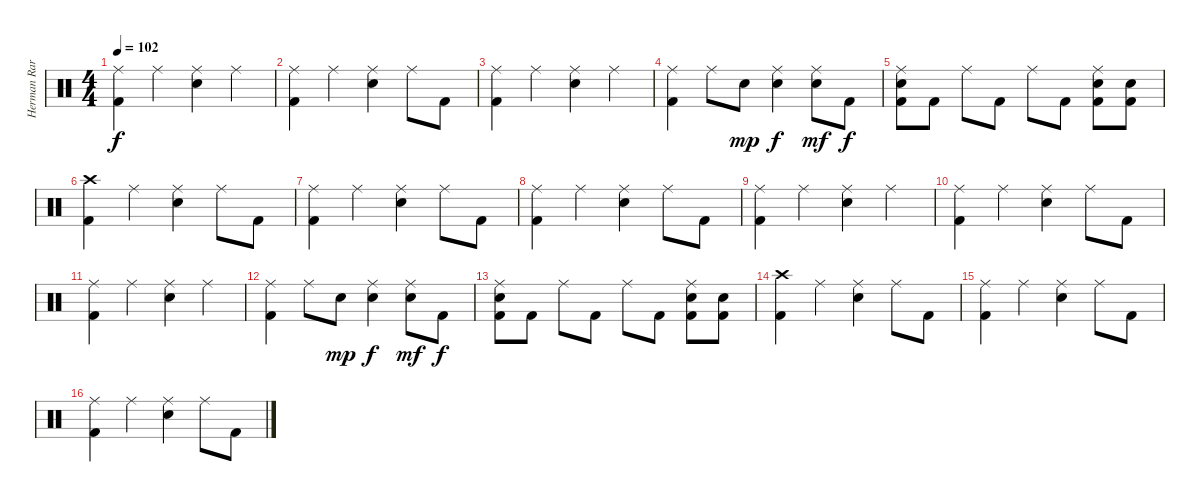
\track ("Herman Rarebell" "Herman Rar") {instrument percussion}
\staff {score}
\articulation defaults
\ts (4 4)
\tempo 102
\clef neutral
\ks c
("Ride (middle)" "Kick (hit) 2").4{dy f} "Ride (middle)".4 ("Ride (middle)" "Electric Snare (hit)").4 "Ride (middle)".4 |
("Ride (middle)" "Kick (hit) 2").4 "Ride (middle)".4 ("Ride (middle)" "Electric Snare (hit)").4 "Ride (middle)".8 "Kick (hit) 2".8 |
("Ride (middle)" "Kick (hit) 2").4 "Ride (middle)".4 ("Ride (middle)" "Electric Snare (hit)").4 "Ride (middle)".4 |
("Ride (middle)" "Kick (hit) 2").4 "Ride (middle)".8 "Electric Snare (hit)".8{dy mp} ("Ride (middle)" "Electric Snare (hit)").4{dy f} ("Ride (middle)" "Electric Snare (hit)").8{dy mf} "Kick (hit) 2".8{dy f} |
("Ride (middle)" "Electric Snare (hit)" "Kick (hit) 2").8 "Kick (hit) 2".8 "Ride (middle)".8 "Kick (hit) 2".8 "Ride (middle)".8 "Kick (hit) 2".8 ("Ride (middle)" "Electric Snare (hit)" "Kick (hit) 2").8 ("Electric Snare (hit)" "Kick (hit) 2").8 |
("Crash high (hit)" "Kick (hit) 2").4 "Ride (middle)".4 ("Ride (middle)" "Electric Snare (hit)").4 "Ride (middle)".8 "Kick (hit) 2".8 |
("Ride (middle)" "Kick (hit) 2").4 "Ride (middle)".4 ("Ride (middle)" "Electric Snare (hit)").4 "Ride (middle)".8 "Kick (hit) 2".8 |
("Ride (middle)" "Kick (hit) 2").4 "Ride (middle)".4 ("Ride (middle)" "Electric Snare (hit)").4 "Ride (middle)".8 "Kick (hit) 2".8 |
("Ride (middle)" "Kick (hit) 2").4 "Ride (middle)".4 ("Ride (middle)" "Electric Snare (hit)").4 "Ride (middle)".4 |
("Ride (middle)" "Kick (hit) 2").4 "Ride (middle)".4 ("Ride (middle)" "Electric Snare (hit)").4 "Ride (middle)".8 "Kick (hit) 2".8 |
("Ride (middle)" "Kick (hit) 2").4 "Ride (middle)".4 ("Ride (middle)" "Electric Snare (hit)").4 "Ride (middle)".4 |
("Ride (middle)" "Kick (hit) 2").4 "Ride (middle)".8 "Electric Snare (hit)".8{dy mp} ("Ride (middle)" "Electric Snare (hit)").4{dy f} ("Ride (middle)" "Electric Snare (hit)").8{dy mf} "Kick (hit) 2".8{dy f} |
("Ride (middle)" "Electric Snare (hit)" "Kick (hit) 2").8 "Kick (hit) 2".8 "Ride (middle)".8 "Kick (hit) 2".8 "Ride (middle)".8 "Kick (hit) 2".8 ("Ride (middle)" "Electric Snare (hit)" "Kick (hit) 2").8 ("Electric Snare (hit)" "Kick (hit) 2").8 |
("Crash high (hit)" "Kick (hit) 2").4 "Ride (middle)".4 ("Ride (middle)" "Electric Snare (hit)").4 "Ride (middle)".8 "Kick (hit) 2".8 |
("Ride (middle)" "Kick (hit) 2").4 "Ride (middle)".4 ("Ride (middle)" "Electric Snare (hit)").4 "Ride (middle)".8 "Kick (hit) 2".8 |
("Ride (middle)" "Kick (hit) 2").4 "Ride (middle)".4 ("Ride (middle)" "Electric Snare (hit)").4 "Ride (middle)".8 "Kick (hit) 2".8
